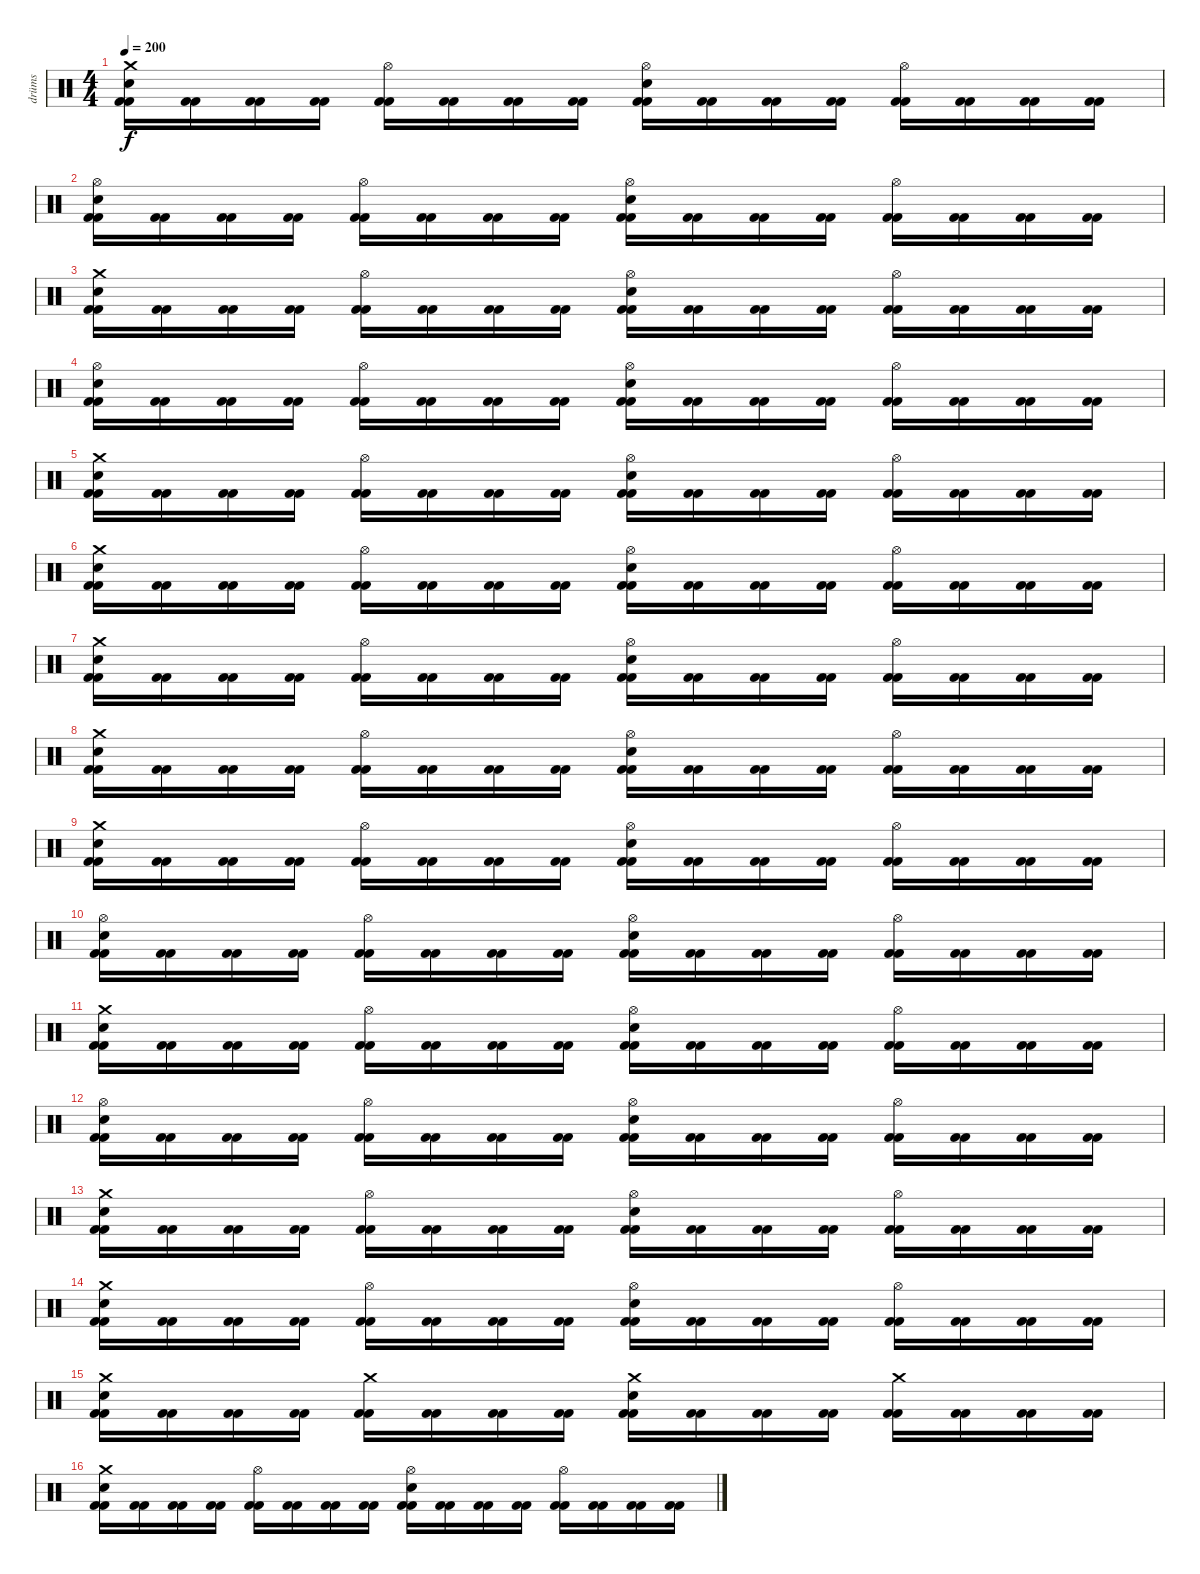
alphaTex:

\track ("drüms" "drüms") {instrument percussion}
\staff {score}
\articulation defaults
\ts (4 4)
\tempo 200
\clef neutral
\ks c
("Crash medium (hit)" "Snare (hit) 2" "Kick (hit) 2" "Kick (hit) 2").16{dy f} ("Kick (hit) 2" "Kick (hit) 2").16 ("Kick (hit) 2" "Kick (hit) 2").16 ("Kick (hit) 2" "Kick (hit) 2").16 ("Hi-Hat (open)" "Kick (hit) 2" "Kick (hit) 2").16 ("Kick (hit) 2" "Kick (hit) 2").16 ("Kick (hit) 2" "Kick (hit) 2").16 ("Kick (hit) 2" "Kick (hit) 2").16 ("Hi-Hat (open)" "Snare (hit) 2" "Kick (hit) 2" "Kick (hit) 2").16 ("Kick (hit) 2" "Kick (hit) 2").16 ("Kick (hit) 2" "Kick (hit) 2").16 ("Kick (hit) 2" "Kick (hit) 2").16 ("Hi-Hat (open)" "Kick (hit) 2" "Kick (hit) 2").16 ("Kick (hit) 2" "Kick (hit) 2").16 ("Kick (hit) 2" "Kick (hit) 2").16 ("Kick (hit) 2" "Kick (hit) 2").16 |
("Hi-Hat (open)" "Snare (hit) 2" "Kick (hit) 2" "Kick (hit) 2").16 ("Kick (hit) 2" "Kick (hit) 2").16 ("Kick (hit) 2" "Kick (hit) 2").16 ("Kick (hit) 2" "Kick (hit) 2").16 ("Hi-Hat (open)" "Kick (hit) 2" "Kick (hit) 2").16 ("Kick (hit) 2" "Kick (hit) 2").16 ("Kick (hit) 2" "Kick (hit) 2").16 ("Kick (hit) 2" "Kick (hit) 2").16 ("Hi-Hat (open)" "Snare (hit) 2" "Kick (hit) 2" "Kick (hit) 2").16 ("Kick (hit) 2" "Kick (hit) 2").16 ("Kick (hit) 2" "Kick (hit) 2").16 ("Kick (hit) 2" "Kick (hit) 2").16 ("Hi-Hat (open)" "Kick (hit) 2" "Kick (hit) 2").16 ("Kick (hit) 2" "Kick (hit) 2").16 ("Kick (hit) 2" "Kick (hit) 2").16 ("Kick (hit) 2" "Kick (hit) 2").16 |
("Crash medium (hit)" "Snare (hit) 2" "Kick (hit) 2" "Kick (hit) 2").16 ("Kick (hit) 2" "Kick (hit) 2").16 ("Kick (hit) 2" "Kick (hit) 2").16 ("Kick (hit) 2" "Kick (hit) 2").16 ("Hi-Hat (open)" "Kick (hit) 2" "Kick (hit) 2").16 ("Kick (hit) 2" "Kick (hit) 2").16 ("Kick (hit) 2" "Kick (hit) 2").16 ("Kick (hit) 2" "Kick (hit) 2").16 ("Hi-Hat (open)" "Snare (hit) 2" "Kick (hit) 2" "Kick (hit) 2").16 ("Kick (hit) 2" "Kick (hit) 2").16 ("Kick (hit) 2" "Kick (hit) 2").16 ("Kick (hit) 2" "Kick (hit) 2").16 ("Hi-Hat (open)" "Kick (hit) 2" "Kick (hit) 2").16 ("Kick (hit) 2" "Kick (hit) 2").16 ("Kick (hit) 2" "Kick (hit) 2").16 ("Kick (hit) 2" "Kick (hit) 2").16 |
("Hi-Hat (open)" "Snare (hit) 2" "Kick (hit) 2" "Kick (hit) 2").16 ("Kick (hit) 2" "Kick (hit) 2").16 ("Kick (hit) 2" "Kick (hit) 2").16 ("Kick (hit) 2" "Kick (hit) 2").16 ("Hi-Hat (open)" "Kick (hit) 2" "Kick (hit) 2").16 ("Kick (hit) 2" "Kick (hit) 2").16 ("Kick (hit) 2" "Kick (hit) 2").16 ("Kick (hit) 2" "Kick (hit) 2").16 ("Hi-Hat (open)" "Snare (hit) 2" "Kick (hit) 2" "Kick (hit) 2").16 ("Kick (hit) 2" "Kick (hit) 2").16 ("Kick (hit) 2" "Kick (hit) 2").16 ("Kick (hit) 2" "Kick (hit) 2").16 ("Hi-Hat (open)" "Kick (hit) 2" "Kick (hit) 2").16 ("Kick (hit) 2" "Kick (hit) 2").16 ("Kick (hit) 2" "Kick (hit) 2").16 ("Kick (hit) 2" "Kick (hit) 2").16 |
("Crash medium (hit)" "Snare (hit) 2" "Kick (hit) 2" "Kick (hit) 2").16 ("Kick (hit) 2" "Kick (hit) 2").16 ("Kick (hit) 2" "Kick (hit) 2").16 ("Kick (hit) 2" "Kick (hit) 2").16 ("Hi-Hat (open)" "Kick (hit) 2" "Kick (hit) 2").16 ("Kick (hit) 2" "Kick (hit) 2").16 ("Kick (hit) 2" "Kick (hit) 2").16 ("Kick (hit) 2" "Kick (hit) 2").16 ("Hi-Hat (open)" "Snare (hit) 2" "Kick (hit) 2" "Kick (hit) 2").16 ("Kick (hit) 2" "Kick (hit) 2").16 ("Kick (hit) 2" "Kick (hit) 2").16 ("Kick (hit) 2" "Kick (hit) 2").16 ("Hi-Hat (open)" "Kick (hit) 2" "Kick (hit) 2").16 ("Kick (hit) 2" "Kick (hit) 2").16 ("Kick (hit) 2" "Kick (hit) 2").16 ("Kick (hit) 2" "Kick (hit) 2").16 |
("Crash medium (hit)" "Snare (hit) 2" "Kick (hit) 2" "Kick (hit) 2").16 ("Kick (hit) 2" "Kick (hit) 2").16 ("Kick (hit) 2" "Kick (hit) 2").16 ("Kick (hit) 2" "Kick (hit) 2").16 ("Hi-Hat (open)" "Kick (hit) 2" "Kick (hit) 2").16 ("Kick (hit) 2" "Kick (hit) 2").16 ("Kick (hit) 2" "Kick (hit) 2").16 ("Kick (hit) 2" "Kick (hit) 2").16 ("Hi-Hat (open)" "Snare (hit) 2" "Kick (hit) 2" "Kick (hit) 2").16 ("Kick (hit) 2" "Kick (hit) 2").16 ("Kick (hit) 2" "Kick (hit) 2").16 ("Kick (hit) 2" "Kick (hit) 2").16 ("Hi-Hat (open)" "Kick (hit) 2" "Kick (hit) 2").16 ("Kick (hit) 2" "Kick (hit) 2").16 ("Kick (hit) 2" "Kick (hit) 2").16 ("Kick (hit) 2" "Kick (hit) 2").16 |
("Crash medium (hit)" "Snare (hit) 2" "Kick (hit) 2" "Kick (hit) 2").16 ("Kick (hit) 2" "Kick (hit) 2").16 ("Kick (hit) 2" "Kick (hit) 2").16 ("Kick (hit) 2" "Kick (hit) 2").16 ("Hi-Hat (open)" "Kick (hit) 2" "Kick (hit) 2").16 ("Kick (hit) 2" "Kick (hit) 2").16 ("Kick (hit) 2" "Kick (hit) 2").16 ("Kick (hit) 2" "Kick (hit) 2").16 ("Hi-Hat (open)" "Snare (hit) 2" "Kick (hit) 2" "Kick (hit) 2").16 ("Kick (hit) 2" "Kick (hit) 2").16 ("Kick (hit) 2" "Kick (hit) 2").16 ("Kick (hit) 2" "Kick (hit) 2").16 ("Hi-Hat (open)" "Kick (hit) 2" "Kick (hit) 2").16 ("Kick (hit) 2" "Kick (hit) 2").16 ("Kick (hit) 2" "Kick (hit) 2").16 ("Kick (hit) 2" "Kick (hit) 2").16 |
("Crash medium (hit)" "Snare (hit) 2" "Kick (hit) 2" "Kick (hit) 2").16 ("Kick (hit) 2" "Kick (hit) 2").16 ("Kick (hit) 2" "Kick (hit) 2").16 ("Kick (hit) 2" "Kick (hit) 2").16 ("Hi-Hat (open)" "Kick (hit) 2" "Kick (hit) 2").16 ("Kick (hit) 2" "Kick (hit) 2").16 ("Kick (hit) 2" "Kick (hit) 2").16 ("Kick (hit) 2" "Kick (hit) 2").16 ("Hi-Hat (open)" "Snare (hit) 2" "Kick (hit) 2" "Kick (hit) 2").16 ("Kick (hit) 2" "Kick (hit) 2").16 ("Kick (hit) 2" "Kick (hit) 2").16 ("Kick (hit) 2" "Kick (hit) 2").16 ("Hi-Hat (open)" "Kick (hit) 2" "Kick (hit) 2").16 ("Kick (hit) 2" "Kick (hit) 2").16 ("Kick (hit) 2" "Kick (hit) 2").16 ("Kick (hit) 2" "Kick (hit) 2").16 |
("Crash medium (hit)" "Snare (hit) 2" "Kick (hit) 2" "Kick (hit) 2").16 ("Kick (hit) 2" "Kick (hit) 2").16 ("Kick (hit) 2" "Kick (hit) 2").16 ("Kick (hit) 2" "Kick (hit) 2").16 ("Hi-Hat (open)" "Kick (hit) 2" "Kick (hit) 2").16 ("Kick (hit) 2" "Kick (hit) 2").16 ("Kick (hit) 2" "Kick (hit) 2").16 ("Kick (hit) 2" "Kick (hit) 2").16 ("Hi-Hat (open)" "Snare (hit) 2" "Kick (hit) 2" "Kick (hit) 2").16 ("Kick (hit) 2" "Kick (hit) 2").16 ("Kick (hit) 2" "Kick (hit) 2").16 ("Kick (hit) 2" "Kick (hit) 2").16 ("Hi-Hat (open)" "Kick (hit) 2" "Kick (hit) 2").16 ("Kick (hit) 2" "Kick (hit) 2").16 ("Kick (hit) 2" "Kick (hit) 2").16 ("Kick (hit) 2" "Kick (hit) 2").16 |
("Hi-Hat (open)" "Snare (hit) 2" "Kick (hit) 2" "Kick (hit) 2").16 ("Kick (hit) 2" "Kick (hit) 2").16 ("Kick (hit) 2" "Kick (hit) 2").16 ("Kick (hit) 2" "Kick (hit) 2").16 ("Hi-Hat (open)" "Kick (hit) 2" "Kick (hit) 2").16 ("Kick (hit) 2" "Kick (hit) 2").16 ("Kick (hit) 2" "Kick (hit) 2").16 ("Kick (hit) 2" "Kick (hit) 2").16 ("Hi-Hat (open)" "Snare (hit) 2" "Kick (hit) 2" "Kick (hit) 2").16 ("Kick (hit) 2" "Kick (hit) 2").16 ("Kick (hit) 2" "Kick (hit) 2").16 ("Kick (hit) 2" "Kick (hit) 2").16 ("Hi-Hat (open)" "Kick (hit) 2" "Kick (hit) 2").16 ("Kick (hit) 2" "Kick (hit) 2").16 ("Kick (hit) 2" "Kick (hit) 2").16 ("Kick (hit) 2" "Kick (hit) 2").16 |
("Crash medium (hit)" "Snare (hit) 2" "Kick (hit) 2" "Kick (hit) 2").16 ("Kick (hit) 2" "Kick (hit) 2").16 ("Kick (hit) 2" "Kick (hit) 2").16 ("Kick (hit) 2" "Kick (hit) 2").16 ("Hi-Hat (open)" "Kick (hit) 2" "Kick (hit) 2").16 ("Kick (hit) 2" "Kick (hit) 2").16 ("Kick (hit) 2" "Kick (hit) 2").16 ("Kick (hit) 2" "Kick (hit) 2").16 ("Hi-Hat (open)" "Snare (hit) 2" "Kick (hit) 2" "Kick (hit) 2").16 ("Kick (hit) 2" "Kick (hit) 2").16 ("Kick (hit) 2" "Kick (hit) 2").16 ("Kick (hit) 2" "Kick (hit) 2").16 ("Hi-Hat (open)" "Kick (hit) 2" "Kick (hit) 2").16 ("Kick (hit) 2" "Kick (hit) 2").16 ("Kick (hit) 2" "Kick (hit) 2").16 ("Kick (hit) 2" "Kick (hit) 2").16 |
("Hi-Hat (open)" "Snare (hit) 2" "Kick (hit) 2" "Kick (hit) 2").16 ("Kick (hit) 2" "Kick (hit) 2").16 ("Kick (hit) 2" "Kick (hit) 2").16 ("Kick (hit) 2" "Kick (hit) 2").16 ("Hi-Hat (open)" "Kick (hit) 2" "Kick (hit) 2").16 ("Kick (hit) 2" "Kick (hit) 2").16 ("Kick (hit) 2" "Kick (hit) 2").16 ("Kick (hit) 2" "Kick (hit) 2").16 ("Hi-Hat (open)" "Snare (hit) 2" "Kick (hit) 2" "Kick (hit) 2").16 ("Kick (hit) 2" "Kick (hit) 2").16 ("Kick (hit) 2" "Kick (hit) 2").16 ("Kick (hit) 2" "Kick (hit) 2").16 ("Hi-Hat (open)" "Kick (hit) 2" "Kick (hit) 2").16 ("Kick (hit) 2" "Kick (hit) 2").16 ("Kick (hit) 2" "Kick (hit) 2").16 ("Kick (hit) 2" "Kick (hit) 2").16 |
("Crash medium (hit)" "Snare (hit) 2" "Kick (hit) 2" "Kick (hit) 2").16 ("Kick (hit) 2" "Kick (hit) 2").16 ("Kick (hit) 2" "Kick (hit) 2").16 ("Kick (hit) 2" "Kick (hit) 2").16 ("Hi-Hat (open)" "Kick (hit) 2" "Kick (hit) 2").16 ("Kick (hit) 2" "Kick (hit) 2").16 ("Kick (hit) 2" "Kick (hit) 2").16 ("Kick (hit) 2" "Kick (hit) 2").16 ("Hi-Hat (open)" "Snare (hit) 2" "Kick (hit) 2" "Kick (hit) 2").16 ("Kick (hit) 2" "Kick (hit) 2").16 ("Kick (hit) 2" "Kick (hit) 2").16 ("Kick (hit) 2" "Kick (hit) 2").16 ("Hi-Hat (open)" "Kick (hit) 2" "Kick (hit) 2").16 ("Kick (hit) 2" "Kick (hit) 2").16 ("Kick (hit) 2" "Kick (hit) 2").16 ("Kick (hit) 2" "Kick (hit) 2").16 |
("Crash medium (hit)" "Snare (hit) 2" "Kick (hit) 2" "Kick (hit) 2").16 ("Kick (hit) 2" "Kick (hit) 2").16 ("Kick (hit) 2" "Kick (hit) 2").16 ("Kick (hit) 2" "Kick (hit) 2").16 ("Hi-Hat (open)" "Kick (hit) 2" "Kick (hit) 2").16 ("Kick (hit) 2" "Kick (hit) 2").16 ("Kick (hit) 2" "Kick (hit) 2").16 ("Kick (hit) 2" "Kick (hit) 2").16 ("Hi-Hat (open)" "Snare (hit) 2" "Kick (hit) 2" "Kick (hit) 2").16 ("Kick (hit) 2" "Kick (hit) 2").16 ("Kick (hit) 2" "Kick (hit) 2").16 ("Kick (hit) 2" "Kick (hit) 2").16 ("Hi-Hat (open)" "Kick (hit) 2" "Kick (hit) 2").16 ("Kick (hit) 2" "Kick (hit) 2").16 ("Kick (hit) 2" "Kick (hit) 2").16 ("Kick (hit) 2" "Kick (hit) 2").16 |
("Crash medium (hit)" "Snare (hit) 2" "Kick (hit) 2" "Kick (hit) 2").16 ("Kick (hit) 2" "Kick (hit) 2").16 ("Kick (hit) 2" "Kick (hit) 2").16 ("Kick (hit) 2" "Kick (hit) 2").16 ("Crash medium (hit)" "Kick (hit) 2" "Kick (hit) 2").16 ("Kick (hit) 2" "Kick (hit) 2").16 ("Kick (hit) 2" "Kick (hit) 2").16 ("Kick (hit) 2" "Kick (hit) 2").16 ("Crash medium (hit)" "Snare (hit) 2" "Kick (hit) 2" "Kick (hit) 2").16 ("Kick (hit) 2" "Kick (hit) 2").16 ("Kick (hit) 2" "Kick (hit) 2").16 ("Kick (hit) 2" "Kick (hit) 2").16 ("Crash medium (hit)" "Kick (hit) 2" "Kick (hit) 2").16 ("Kick (hit) 2" "Kick (hit) 2").16 ("Kick (hit) 2" "Kick (hit) 2").16 ("Kick (hit) 2" "Kick (hit) 2").16 |
("Crash medium (hit)" "Snare (hit) 2" "Kick (hit) 2" "Kick (hit) 2").16 ("Kick (hit) 2" "Kick (hit) 2").16 ("Kick (hit) 2" "Kick (hit) 2").16 ("Kick (hit) 2" "Kick (hit) 2").16 ("Hi-Hat (open)" "Kick (hit) 2" "Kick (hit) 2").16 ("Kick (hit) 2" "Kick (hit) 2").16 ("Kick (hit) 2" "Kick (hit) 2").16 ("Kick (hit) 2" "Kick (hit) 2").16 ("Hi-Hat (open)" "Snare (hit) 2" "Kick (hit) 2" "Kick (hit) 2").16 ("Kick (hit) 2" "Kick (hit) 2").16 ("Kick (hit) 2" "Kick (hit) 2").16 ("Kick (hit) 2" "Kick (hit) 2").16 ("Hi-Hat (open)" "Kick (hit) 2" "Kick (hit) 2").16 ("Kick (hit) 2" "Kick (hit) 2").16 ("Kick (hit) 2" "Kick (hit) 2").16 ("Kick (hit) 2" "Kick (hit) 2").16
